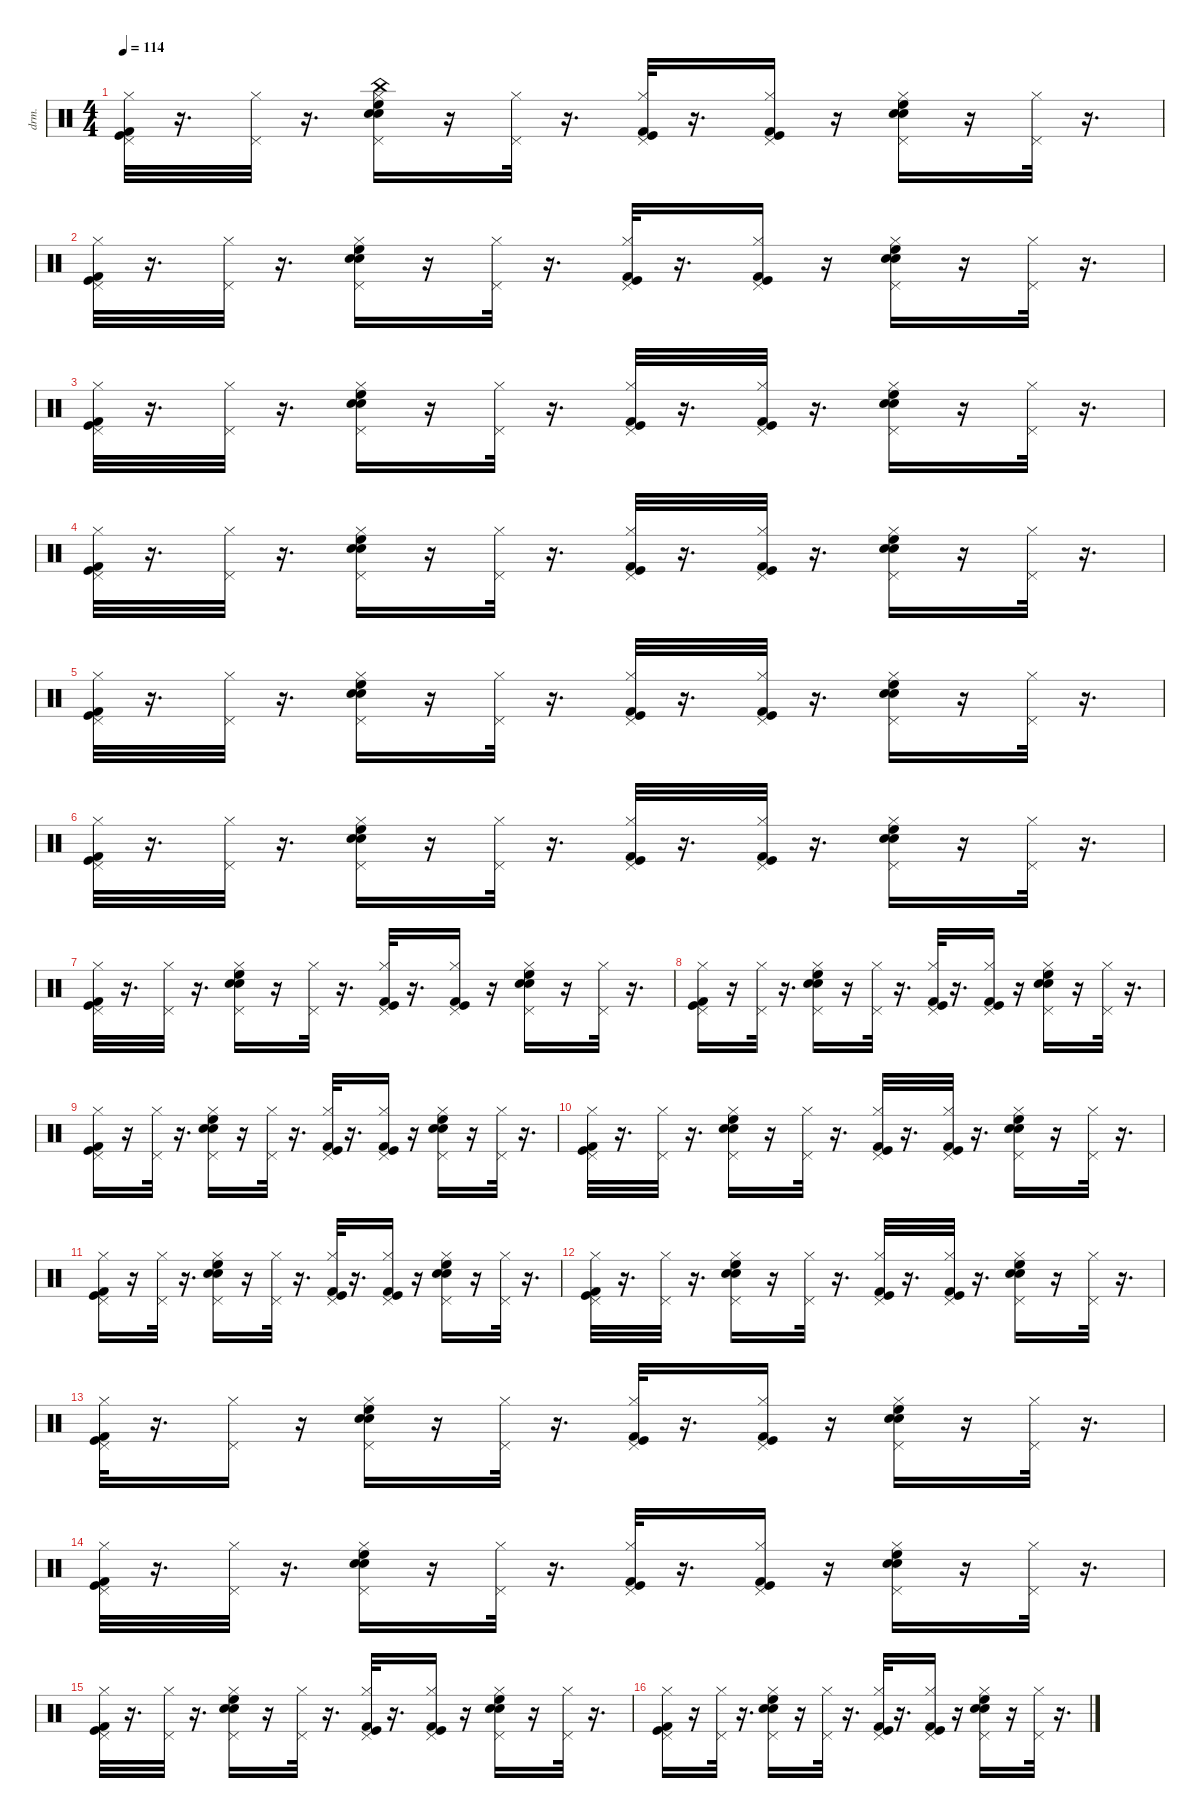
\defaultSystemsLayout 4
\hideDynamics
\bracketExtendMode nobrackets
\otherSystemsTrackNameOrientation horizontal
\track ("Drums" "drm.") {instrument percussion}
\staff {score}
\articulation defaults
\ts (4 4)
\tempo 114
\clef neutral
\ks c
("Pedal Hi-Hat (hit)" "Kick (hit)" "Hi-Hat (closed)" "Kick (hit) 2").32{dy ff} r.16{d} ("Pedal Hi-Hat (hit)" "Hi-Hat (closed)").32 r.16{d} ("Pedal Hi-Hat (hit)" "Hi-Hat (closed)" "China (hit)" "High Floor Tom (hit)" "Snare (hit) 2" "Snare (hit) 2").16 r.16 ("Pedal Hi-Hat (hit)" "Hi-Hat (closed)").32{dy f} r.16{d} ("Kick (hit) 2" "Pedal Hi-Hat (hit)" "Hi-Hat (closed)" "Kick (hit)").32{dy fff} r.16{d} ("Pedal Hi-Hat (hit)" "Hi-Hat (closed)" "Kick (hit) 2" "Kick (hit)").16{dy ff} r.16 ("Snare (hit) 2" "High Floor Tom (hit)" "Pedal Hi-Hat (hit)" "Hi-Hat (closed)" "Snare (hit) 2").16{dy fff} r.16 ("Pedal Hi-Hat (hit)" "Hi-Hat (closed)").32{dy ff} r.16{d} |
("Kick (hit) 2" "Kick (hit)" "Pedal Hi-Hat (hit)" "Hi-Hat (closed)").32{dy fff} r.16{d} ("Pedal Hi-Hat (hit)" "Hi-Hat (closed)").32{dy ff} r.16{d} ("Snare (hit) 2" "Snare (hit) 2" "Pedal Hi-Hat (hit)" "Hi-Hat (closed)" "High Floor Tom (hit)").16{dy fff} r.16 ("Pedal Hi-Hat (hit)" "Hi-Hat (closed)").32{dy ff} r.16{d} ("Kick (hit) 2" "Kick (hit)" "Pedal Hi-Hat (hit)" "Hi-Hat (closed)").32{dy fff} r.16{d} ("Pedal Hi-Hat (hit)" "Hi-Hat (closed)" "Kick (hit)" "Kick (hit) 2").16{dy ff} r.16 ("Snare (hit) 2" "Snare (hit) 2" "High Floor Tom (hit)" "Pedal Hi-Hat (hit)" "Hi-Hat (closed)").16{dy fff} r.16 ("Pedal Hi-Hat (hit)" "Hi-Hat (closed)").32{dy ff} r.16{d} |
("Kick (hit) 2" "Kick (hit)" "Pedal Hi-Hat (hit)" "Hi-Hat (closed)").32{dy fff} r.16{d} ("Pedal Hi-Hat (hit)" "Hi-Hat (closed)").32{dy f} r.16{d} ("Snare (hit) 2" "Pedal Hi-Hat (hit)" "Hi-Hat (closed)" "Snare (hit) 2" "High Floor Tom (hit)").16{dy fff} r.16 ("Pedal Hi-Hat (hit)" "Hi-Hat (closed)").32{dy f} r.16{d} ("Kick (hit) 2" "Kick (hit)" "Pedal Hi-Hat (hit)" "Hi-Hat (closed)").32{dy fff} r.16{d} ("Kick (hit)" "Pedal Hi-Hat (hit)" "Hi-Hat (closed)" "Kick (hit) 2").32 r.16{d} ("High Floor Tom (hit)" "Snare (hit) 2" "Pedal Hi-Hat (hit)" "Snare (hit) 2" "Hi-Hat (closed)").16 r.16 ("Pedal Hi-Hat (hit)" "Hi-Hat (closed)").32{dy f} r.16{d} |
("Kick (hit)" "Pedal Hi-Hat (hit)" "Hi-Hat (closed)" "Kick (hit) 2").32{dy fff} r.16{d} ("Pedal Hi-Hat (hit)" "Hi-Hat (closed)").32{dy f} r.16{d} ("Snare (hit) 2" "Snare (hit) 2" "Pedal Hi-Hat (hit)" "Hi-Hat (closed)" "High Floor Tom (hit)").16{dy fff} r.16 ("Pedal Hi-Hat (hit)" "Hi-Hat (closed)").32{dy f} r.16{d} ("Pedal Hi-Hat (hit)" "Hi-Hat (closed)" "Kick (hit)" "Kick (hit) 2").32{dy ff} r.16{d} ("Pedal Hi-Hat (hit)" "Hi-Hat (closed)" "Kick (hit)" "Kick (hit) 2").32{dy f} r.16{d} ("Pedal Hi-Hat (hit)" "Hi-Hat (closed)" "Snare (hit) 2" "High Floor Tom (hit)" "Snare (hit) 2").16 r.16 ("Pedal Hi-Hat (hit)" "Hi-Hat (closed)").32{dy ff} r.16{d} |
("Kick (hit)" "Pedal Hi-Hat (hit)" "Hi-Hat (closed)" "Kick (hit) 2").32{dy fff} r.16{d} ("Pedal Hi-Hat (hit)" "Hi-Hat (closed)").32{dy f} r.16{d} ("High Floor Tom (hit)" "Snare (hit) 2" "Pedal Hi-Hat (hit)" "Hi-Hat (closed)" "Snare (hit) 2").16{dy fff} r.16 ("Pedal Hi-Hat (hit)" "Hi-Hat (closed)").32{dy ff} r.16{d} ("Pedal Hi-Hat (hit)" "Hi-Hat (closed)" "Kick (hit) 2" "Kick (hit)").32{dy f} r.16{d} ("Pedal Hi-Hat (hit)" "Hi-Hat (closed)" "Kick (hit)" "Kick (hit) 2").32 r.16{d} ("Pedal Hi-Hat (hit)" "Snare (hit) 2" "Hi-Hat (closed)" "High Floor Tom (hit)" "Snare (hit) 2").16{dy ff} r.16 ("Pedal Hi-Hat (hit)" "Hi-Hat (closed)").32{dy f} r.16{d} |
("Pedal Hi-Hat (hit)" "Hi-Hat (closed)" "Kick (hit)" "Kick (hit) 2").32{dy ff} r.16{d} ("Pedal Hi-Hat (hit)" "Hi-Hat (closed)").32{dy f} r.16{d} ("Snare (hit) 2" "High Floor Tom (hit)" "Pedal Hi-Hat (hit)" "Hi-Hat (closed)" "Snare (hit) 2").16{dy fff} r.16 ("Pedal Hi-Hat (hit)" "Hi-Hat (closed)").32{dy f} r.16{d} ("Kick (hit) 2" "Pedal Hi-Hat (hit)" "Hi-Hat (closed)" "Kick (hit)").32{dy fff} r.16{d} ("Pedal Hi-Hat (hit)" "Kick (hit) 2" "Hi-Hat (closed)" "Kick (hit)").32{dy ff} r.16{d} ("Snare (hit) 2" "Pedal Hi-Hat (hit)" "High Floor Tom (hit)" "Hi-Hat (closed)" "Snare (hit) 2").16{dy fff} r.16 ("Pedal Hi-Hat (hit)" "Hi-Hat (closed)").32{dy ff} r.16{d} |
("Pedal Hi-Hat (hit)" "Hi-Hat (closed)" "Kick (hit) 2" "Kick (hit)").32 r.16{d} ("Pedal Hi-Hat (hit)" "Hi-Hat (closed)").32{dy f} r.16{d} ("Snare (hit) 2" "Pedal Hi-Hat (hit)" "Hi-Hat (closed)" "High Floor Tom (hit)" "Snare (hit) 2").16{dy fff} r.16 ("Pedal Hi-Hat (hit)" "Hi-Hat (closed)").32{dy ff} r.16{d} ("Kick (hit) 2" "Pedal Hi-Hat (hit)" "Hi-Hat (closed)" "Kick (hit)").32{dy fff} r.16{d} ("Pedal Hi-Hat (hit)" "Kick (hit) 2" "Hi-Hat (closed)" "Kick (hit)").16{dy ff} r.16 ("High Floor Tom (hit)" "Snare (hit) 2" "Pedal Hi-Hat (hit)" "Hi-Hat (closed)" "Snare (hit) 2").16{dy fff} r.16 ("Pedal Hi-Hat (hit)" "Hi-Hat (closed)").32{dy ff} r.16{d} |
("Kick (hit) 2" "Pedal Hi-Hat (hit)" "Hi-Hat (closed)" "Kick (hit)").16{dy fff} r.16 ("Pedal Hi-Hat (hit)" "Hi-Hat (closed)").32{dy f} r.16{d} ("Snare (hit) 2" "Pedal Hi-Hat (hit)" "Hi-Hat (closed)" "High Floor Tom (hit)" "Snare (hit) 2").16{dy fff} r.16 ("Pedal Hi-Hat (hit)" "Hi-Hat (closed)").32{dy f} r.16{d} ("Kick (hit) 2" "Pedal Hi-Hat (hit)" "Kick (hit)" "Hi-Hat (closed)").32{dy fff} r.16{d} ("Pedal Hi-Hat (hit)" "Hi-Hat (closed)" "Kick (hit)" "Kick (hit) 2").16{dy f} r.16 ("Pedal Hi-Hat (hit)" "Snare (hit) 2" "High Floor Tom (hit)" "Hi-Hat (closed)" "Snare (hit) 2").16{dy ff} r.16 ("Pedal Hi-Hat (hit)" "Hi-Hat (closed)").32{dy f} r.16{d} |
("Kick (hit) 2" "Pedal Hi-Hat (hit)" "Hi-Hat (closed)" "Kick (hit)").16{dy fff} r.16 ("Pedal Hi-Hat (hit)" "Hi-Hat (closed)").32{dy ff} r.16{d} ("Snare (hit) 2" "Snare (hit) 2" "Pedal Hi-Hat (hit)" "Hi-Hat (closed)" "High Floor Tom (hit)").16{dy fff} r.16 ("Pedal Hi-Hat (hit)" "Hi-Hat (closed)").32{dy f} r.16{d} ("Kick (hit) 2" "Pedal Hi-Hat (hit)" "Hi-Hat (closed)" "Kick (hit)").32{dy fff} r.16{d} ("Pedal Hi-Hat (hit)" "Kick (hit) 2" "Hi-Hat (closed)" "Kick (hit)").16{dy f} r.16 ("Snare (hit) 2" "High Floor Tom (hit)" "Pedal Hi-Hat (hit)" "Hi-Hat (closed)" "Snare (hit) 2").16{dy fff} r.16 ("Hi-Hat (closed)" "Pedal Hi-Hat (hit)").32{dy f} r.16{d} |
("Kick (hit)" "Pedal Hi-Hat (hit)" "Hi-Hat (closed)" "Kick (hit) 2").32{dy fff} r.16{d} ("Pedal Hi-Hat (hit)" "Hi-Hat (closed)").32{dy ff} r.16{d} ("Pedal Hi-Hat (hit)" "Snare (hit) 2" "Hi-Hat (closed)" "High Floor Tom (hit)" "Snare (hit) 2").16 r.16 ("Pedal Hi-Hat (hit)" "Hi-Hat (closed)").32 r.16{d} ("Hi-Hat (closed)" "Pedal Hi-Hat (hit)" "Kick (hit)" "Kick (hit) 2").32{dy f} r.16{d} ("Pedal Hi-Hat (hit)" "Kick (hit)" "Hi-Hat (closed)" "Kick (hit) 2").32{dy ff} r.16{d} ("Snare (hit) 2" "High Floor Tom (hit)" "Pedal Hi-Hat (hit)" "Hi-Hat (closed)" "Snare (hit) 2").16{dy fff} r.16 ("Pedal Hi-Hat (hit)" "Hi-Hat (closed)").32{dy f} r.16{d} |
("Kick (hit)" "Pedal Hi-Hat (hit)" "Hi-Hat (closed)" "Kick (hit) 2").16{dy fff} r.16 ("Pedal Hi-Hat (hit)" "Hi-Hat (closed)").32{dy ff} r.16{d} ("Pedal Hi-Hat (hit)" "Hi-Hat (closed)" "Snare (hit) 2" "Snare (hit) 2" "High Floor Tom (hit)").16 r.16 ("Pedal Hi-Hat (hit)" "Hi-Hat (closed)").32 r.16{d} ("Kick (hit)" "Pedal Hi-Hat (hit)" "Hi-Hat (closed)" "Kick (hit) 2").32{dy fff} r.16{d} ("Hi-Hat (closed)" "Pedal Hi-Hat (hit)" "Kick (hit)" "Kick (hit) 2").16{dy ff} r.16 ("High Floor Tom (hit)" "Pedal Hi-Hat (hit)" "Hi-Hat (closed)" "Snare (hit) 2" "Snare (hit) 2").16{dy fff} r.16 ("Pedal Hi-Hat (hit)" "Hi-Hat (closed)").32{dy ff} r.16{d} |
("Kick (hit)" "Pedal Hi-Hat (hit)" "Hi-Hat (closed)" "Kick (hit) 2").32{dy fff} r.16{d} ("Pedal Hi-Hat (hit)" "Hi-Hat (closed)").32{dy ff} r.16{d} ("Snare (hit) 2" "Pedal Hi-Hat (hit)" "Hi-Hat (closed)" "Snare (hit) 2" "High Floor Tom (hit)").16{dy fff} r.16 ("Pedal Hi-Hat (hit)" "Hi-Hat (closed)").32{dy f} r.16{d} ("Pedal Hi-Hat (hit)" "Hi-Hat (closed)" "Kick (hit)" "Kick (hit) 2").32{dy ff} r.16{d} ("Hi-Hat (closed)" "Pedal Hi-Hat (hit)" "Kick (hit)" "Kick (hit) 2").32{dy f} r.16{d} ("Snare (hit) 2" "Pedal Hi-Hat (hit)" "Snare (hit) 2" "Hi-Hat (closed)" "High Floor Tom (hit)").16{dy fff} r.16 ("Hi-Hat (closed)" "Pedal Hi-Hat (hit)").32{dy f} r.16{d} |
("Kick (hit)" "Kick (hit) 2" "Pedal Hi-Hat (hit)" "Hi-Hat (closed)").32{dy fff} r.16{d} ("Pedal Hi-Hat (hit)" "Hi-Hat (closed)").16{dy f} r.16 ("Snare (hit) 2" "Pedal Hi-Hat (hit)" "Snare (hit) 2" "Hi-Hat (closed)" "High Floor Tom (hit)").16{dy fff} r.16 ("Pedal Hi-Hat (hit)" "Hi-Hat (closed)").32{dy f} r.16{d} ("Kick (hit)" "Hi-Hat (closed)" "Pedal Hi-Hat (hit)" "Kick (hit) 2").32{dy fff} r.16{d} ("Kick (hit) 2" "Kick (hit)" "Hi-Hat (closed)" "Pedal Hi-Hat (hit)").16 r.16 ("Snare (hit) 2" "Pedal Hi-Hat (hit)" "Hi-Hat (closed)" "High Floor Tom (hit)" "Snare (hit) 2").16 r.16 ("Pedal Hi-Hat (hit)" "Hi-Hat (closed)").32{dy f} r.16{d} |
("Kick (hit)" "Kick (hit) 2" "Pedal Hi-Hat (hit)" "Hi-Hat (closed)").32{dy fff} r.16{d} ("Pedal Hi-Hat (hit)" "Hi-Hat (closed)").32{dy ff} r.16{d} ("Snare (hit) 2" "Snare (hit) 2" "Pedal Hi-Hat (hit)" "High Floor Tom (hit)" "Hi-Hat (closed)").16{dy fff} r.16 ("Hi-Hat (closed)" "Pedal Hi-Hat (hit)").32{dy f} r.16{d} ("Pedal Hi-Hat (hit)" "Kick (hit) 2" "Hi-Hat (closed)" "Kick (hit)").32 r.16{d} ("Pedal Hi-Hat (hit)" "Kick (hit) 2" "Hi-Hat (closed)" "Kick (hit)").16 r.16 ("High Floor Tom (hit)" "Snare (hit) 2" "Hi-Hat (closed)" "Snare (hit) 2" "Pedal Hi-Hat (hit)").16{dy fff} r.16 ("Pedal Hi-Hat (hit)" "Hi-Hat (closed)").32{dy ff} r.16{d} |
("Kick (hit)" "Pedal Hi-Hat (hit)" "Kick (hit) 2" "Hi-Hat (closed)").32{dy fff} r.16{d} ("Pedal Hi-Hat (hit)" "Hi-Hat (closed)").32{dy f} r.16{d} ("Pedal Hi-Hat (hit)" "Hi-Hat (closed)" "Snare (hit) 2" "High Floor Tom (hit)" "Snare (hit) 2").16{dy ff} r.16 ("Pedal Hi-Hat (hit)" "Hi-Hat (closed)").32 r.16{d} ("Pedal Hi-Hat (hit)" "Hi-Hat (closed)" "Kick (hit)" "Kick (hit) 2").32 r.16{d} ("Pedal Hi-Hat (hit)" "Hi-Hat (closed)" "Kick (hit) 2" "Kick (hit)").16 r.16 ("Snare (hit) 2" "Pedal Hi-Hat (hit)" "Snare (hit) 2" "Hi-Hat (closed)" "High Floor Tom (hit)").16{dy fff} r.16 ("Pedal Hi-Hat (hit)" "Hi-Hat (closed)").32{dy ff} r.16{d} |
("Pedal Hi-Hat (hit)" "Hi-Hat (closed)" "Kick (hit) 2" "Kick (hit)").16 r.16 ("Pedal Hi-Hat (hit)" "Hi-Hat (closed)").32 r.16{d} ("Snare (hit) 2" "Pedal Hi-Hat (hit)" "Hi-Hat (closed)" "Snare (hit) 2" "High Floor Tom (hit)").16{dy fff} r.16 ("Pedal Hi-Hat (hit)" "Hi-Hat (closed)").32{dy f} r.16{d} ("Kick (hit) 2" "Pedal Hi-Hat (hit)" "Kick (hit)" "Hi-Hat (closed)").32{dy fff} r.16{d} ("Kick (hit)" "Kick (hit) 2" "Pedal Hi-Hat (hit)" "Hi-Hat (closed)").16 r.16 ("High Floor Tom (hit)" "Snare (hit) 2" "Snare (hit) 2" "Pedal Hi-Hat (hit)" "Hi-Hat (closed)").16 r.16 ("Pedal Hi-Hat (hit)" "Hi-Hat (closed)").32{dy ff} r.16{d}
